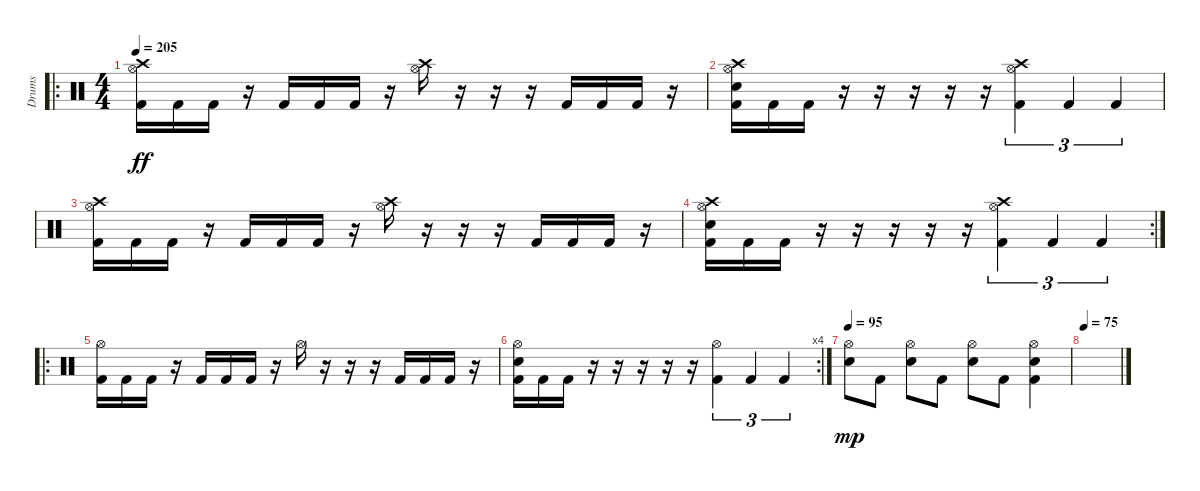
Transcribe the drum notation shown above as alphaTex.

\track ("Drums" "Drums") {instrument percussion}
\staff {score}
\articulation defaults
\ro
\ts (4 4)
\tempo 205
\clef neutral
\ks c
("Crash high (hit)" "Hi-Hat (open)" "Kick (hit) 2").16{dy ff} "Kick (hit) 2".16 "Kick (hit) 2".16 r.16 "Kick (hit) 2".16 "Kick (hit) 2".16 "Kick (hit) 2".16 r.16 ("Crash high (hit)" "Hi-Hat (open)").16 r.16 r.16 r.16 "Kick (hit) 2".16 "Kick (hit) 2".16 "Kick (hit) 2".16 r.16 |
("Crash high (hit)" "Hi-Hat (open)" "Snare (hit) 2" "Kick (hit) 2").16 "Kick (hit) 2".16 "Kick (hit) 2".16 r.16 r.16 r.16 r.16 r.16 ("Crash high (hit)" "Hi-Hat (open)" "Kick (hit) 2").4{tu (3 2)} "Kick (hit) 2".4{tu (3 2)} "Kick (hit) 2".4{tu (3 2)} |
("Crash high (hit)" "Hi-Hat (open)" "Kick (hit) 2").16 "Kick (hit) 2".16 "Kick (hit) 2".16 r.16 "Kick (hit) 2".16 "Kick (hit) 2".16 "Kick (hit) 2".16 r.16 ("Crash high (hit)" "Hi-Hat (open)").16 r.16 r.16 r.16 "Kick (hit) 2".16 "Kick (hit) 2".16 "Kick (hit) 2".16 r.16 |
\rc 2
("Crash high (hit)" "Hi-Hat (open)" "Snare (hit) 2" "Kick (hit) 2").16 "Kick (hit) 2".16 "Kick (hit) 2".16 r.16 r.16 r.16 r.16 r.16 ("Crash high (hit)" "Hi-Hat (open)" "Kick (hit) 2").4{tu (3 2)} "Kick (hit) 2".4{tu (3 2)} "Kick (hit) 2".4{tu (3 2)} |
\ro
("Hi-Hat (open)" "Kick (hit) 2").16 "Kick (hit) 2".16 "Kick (hit) 2".16 r.16 "Kick (hit) 2".16 "Kick (hit) 2".16 "Kick (hit) 2".16 r.16 "Hi-Hat (open)".16 r.16 r.16 r.16 "Kick (hit) 2".16 "Kick (hit) 2".16 "Kick (hit) 2".16 r.16 |
\rc 4
("Hi-Hat (open)" "Snare (hit) 2" "Kick (hit) 2").16 "Kick (hit) 2".16 "Kick (hit) 2".16 r.16 r.16 r.16 r.16 r.16 ("Hi-Hat (open)" "Kick (hit) 2").4{tu (3 2)} "Kick (hit) 2".4{tu (3 2)} "Kick (hit) 2".4{tu (3 2)} |
\tempo 95
("Hi-Hat (open)" "Snare (hit) 2").8{dy mp} "Kick (hit) 2".8 ("Hi-Hat (open)" "Snare (hit) 2").8 "Kick (hit) 2".8 ("Hi-Hat (open)" "Snare (hit) 2").8 "Kick (hit) 2".8 ("Hi-Hat (open)" "Snare (hit) 2" "Kick (hit) 2").4 |
\tempo 75
